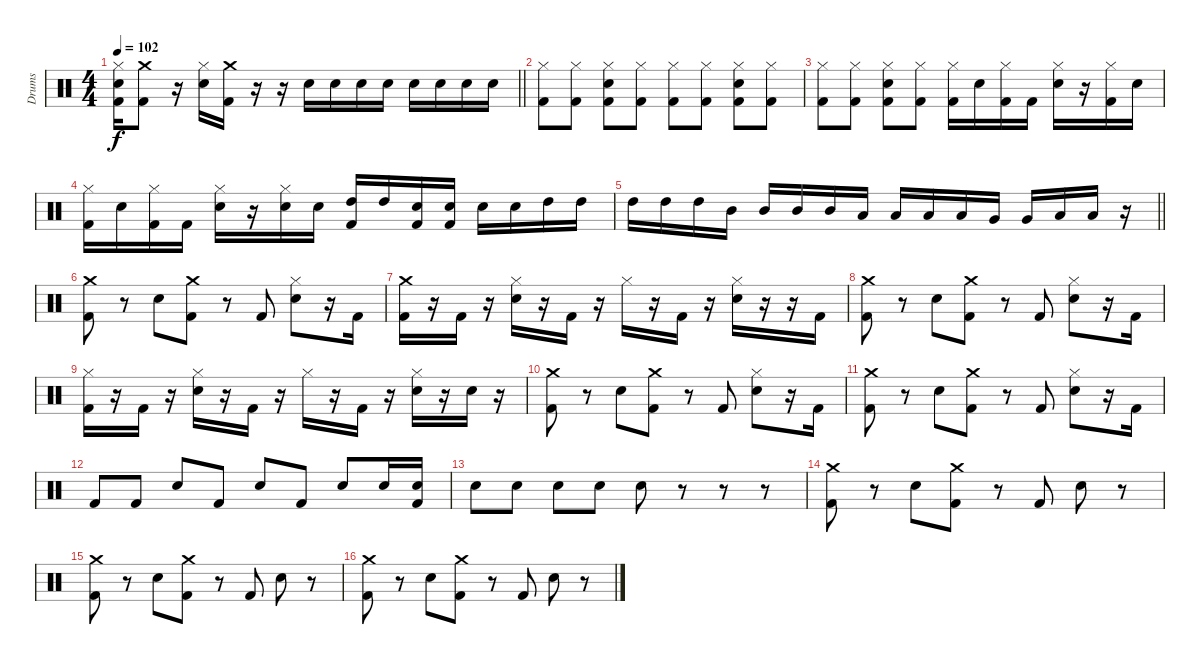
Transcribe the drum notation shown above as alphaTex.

\track ("Drums" "Drums") {instrument percussion}
\staff {score}
\articulation defaults
\ts (4 4)
\tempo 102
\clef neutral
\barLineRight lightlight
\ks c
("Hi-Hat (closed)" "Snare (hit) 2" "Kick (hit) 2").16{dy f} ("Crash medium (hit)" "Kick (hit) 2").8 r.16 ("Hi-Hat (closed)" "Snare (hit) 2").16 ("Crash medium (hit)" "Kick (hit) 2").16 r.16 r.16 "Snare (hit) 2".16 "Snare (hit) 2".16 "Snare (hit) 2".16 "Snare (hit) 2".16 "Snare (hit) 2".16 "Snare (hit) 2".16 "Snare (hit) 2".16 "Snare (hit) 2".16 |
("Hi-Hat (closed)" "Kick (hit) 2").8 ("Hi-Hat (closed)" "Kick (hit) 2").8 ("Hi-Hat (closed)" "Snare (hit) 2" "Kick (hit) 2").8 ("Hi-Hat (closed)" "Kick (hit) 2").8 ("Hi-Hat (closed)" "Kick (hit) 2").8 ("Hi-Hat (closed)" "Kick (hit) 2").8 ("Hi-Hat (closed)" "Snare (hit) 2" "Kick (hit) 2").8 ("Hi-Hat (closed)" "Kick (hit) 2").8 |
("Hi-Hat (closed)" "Kick (hit) 2").8 ("Hi-Hat (closed)" "Kick (hit) 2").8 ("Hi-Hat (closed)" "Snare (hit) 2" "Kick (hit) 2").8 ("Hi-Hat (closed)" "Kick (hit) 2").8 ("Hi-Hat (closed)" "Kick (hit) 2").16 "Snare (hit) 2".16 ("Hi-Hat (closed)" "Kick (hit) 2").16 "Kick (hit) 2".16 ("Hi-Hat (closed)" "Snare (hit) 2").16 r.16 ("Hi-Hat (closed)" "Kick (hit) 2").16 "Snare (hit) 2".16 |
("Hi-Hat (closed)" "Kick (hit) 2").16 "Snare (hit) 2".16 ("Hi-Hat (closed)" "Kick (hit) 2").16 "Kick (hit) 2".16 ("Hi-Hat (closed)" "Snare (hit) 2").16 r.16 ("Hi-Hat (closed)" "Snare (hit) 2").16 "Snare (hit) 2".16 ("High Tom (hit)" "Kick (hit) 2").16 "High Tom (hit)".16 ("Snare (hit) 2" "Kick (hit) 2").16 ("Snare (hit) 2" "Kick (hit) 2").16 "Snare (hit) 2".16 "Snare (hit) 2".16 "High Tom (hit)".16 "High Tom (hit)".16 |
\barLineRight lightlight "High Tom (hit)".16 "High Tom (hit)".16 "High Tom (hit)".16 "Mid Tom (hit)".16 "Mid Tom (hit)".16 "Mid Tom (hit)".16 "Mid Tom (hit)".16 "Low Tom (hit)".16 "Low Tom (hit)".16 "Low Tom (hit)".16 "Low Tom (hit)".16 "Very Low Tom (hit)".16 "Very Low Tom (hit)".16 "Low Floor Tom (hit)".16 "Low Floor Tom (hit)".16
r.16 |
("Crash medium (hit)" "Kick (hit) 2").8 r.8 "Snare (hit) 2".8 ("Crash medium (hit)" "Kick (hit) 2").8 r.8 "Kick (hit) 2".8 ("Hi-Hat (closed)" "Snare (hit) 2").8 r.16 "Kick (hit) 2".16 |
("Crash medium (hit)" "Kick (hit) 2").16 r.16 "Kick (hit) 2".16 r.16 ("Hi-Hat (closed)" "Snare (hit) 2").16 r.16 "Kick (hit) 2".16 r.16 "Hi-Hat (closed)".16 r.16 "Kick (hit) 2".16 r.16 ("Hi-Hat (closed)" "Snare (hit) 2").16 r.16 r.16 "Kick (hit) 2".16 |
("Crash medium (hit)" "Kick (hit) 2").8 r.8 "Snare (hit) 2".8 ("Crash medium (hit)" "Kick (hit) 2").8 r.8 "Kick (hit) 2".8 ("Hi-Hat (closed)" "Snare (hit) 2").8 r.16 "Kick (hit) 2".16 |
("Hi-Hat (closed)" "Kick (hit) 2").16 r.16 "Kick (hit) 2".16 r.16 ("Hi-Hat (closed)" "Snare (hit) 2").16 r.16 "Kick (hit) 2".16 r.16 "Hi-Hat (closed)".16 r.16 "Kick (hit) 2".16 r.16 ("Hi-Hat (closed)" "Snare (hit) 2").16 r.16 "Snare (hit) 2".16 r.16 |
("Crash medium (hit)" "Kick (hit) 2").8 r.8 "Snare (hit) 2".8 ("Crash medium (hit)" "Kick (hit) 2").8 r.8 "Kick (hit) 2".8 ("Hi-Hat (closed)" "Snare (hit) 2").8 r.16 "Kick (hit) 2".16 |
("Crash medium (hit)" "Kick (hit) 2").8 r.8 "Snare (hit) 2".8 ("Crash medium (hit)" "Kick (hit) 2").8 r.8 "Kick (hit) 2".8 ("Hi-Hat (closed)" "Snare (hit) 2").8 r.16 "Kick (hit) 2".16 |
"Kick (hit) 2".8 "Kick (hit) 2".8 "Snare (hit) 2".8 "Kick (hit) 2".8 "Snare (hit) 2".8 "Kick (hit) 2".8 "Snare (hit) 2".8 "Snare (hit) 2".16 ("Snare (hit) 2" "Kick (hit) 2").16 |
"Snare (hit) 2".8 "Snare (hit) 2".8 "Snare (hit) 2".8 "Snare (hit) 2".8 "Snare (hit) 2".8 r.8 r.8 r.8 |
("Crash medium (hit)" "Kick (hit) 2").8 r.8 "Snare (hit) 2".8 ("Crash medium (hit)" "Kick (hit) 2").8 r.8 "Kick (hit) 2".8 "Snare (hit) 2".8 r.8 |
("Crash medium (hit)" "Kick (hit) 2").8 r.8 "Snare (hit) 2".8 ("Crash medium (hit)" "Kick (hit) 2").8 r.8 "Kick (hit) 2".8 "Snare (hit) 2".8 r.8 |
("Crash medium (hit)" "Kick (hit) 2").8 r.8 "Snare (hit) 2".8 ("Crash medium (hit)" "Kick (hit) 2").8 r.8 "Kick (hit) 2".8 "Snare (hit) 2".8 r.8
